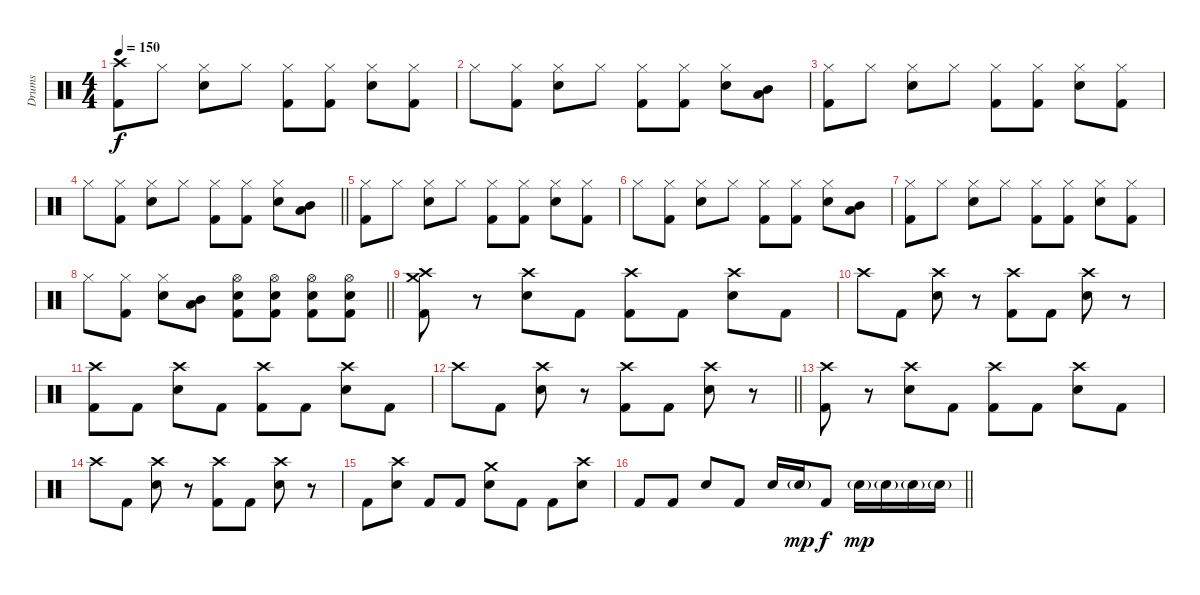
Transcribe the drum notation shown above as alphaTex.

\track ("Drums" "Drums") {instrument percussion}
\staff {score}
\articulation defaults
\ts (4 4)
\tempo 150
\clef neutral
\ks c
("Crash high (hit)" "Kick (hit) 2").8{dy f} "Hi-Hat (closed)".8 ("Hi-Hat (closed)" "Snare (hit) 2").8 "Hi-Hat (closed)".8 ("Hi-Hat (closed)" "Kick (hit) 2").8 ("Hi-Hat (closed)" "Kick (hit) 2").8 ("Hi-Hat (closed)" "Snare (hit) 2").8 ("Hi-Hat (closed)" "Kick (hit) 2").8 |
"Hi-Hat (closed)".8 ("Hi-Hat (closed)" "Kick (hit) 2").8 ("Hi-Hat (closed)" "Snare (hit) 2").8 "Hi-Hat (closed)".8 ("Hi-Hat (closed)" "Kick (hit) 2").8 ("Hi-Hat (closed)" "Kick (hit) 2").8 ("Hi-Hat (closed)" "Snare (hit) 2").8 ("Mid Tom (hit)" "Low Tom (hit)").8 |
("Hi-Hat (closed)" "Kick (hit) 2").8 "Hi-Hat (closed)".8 ("Hi-Hat (closed)" "Snare (hit) 2").8 "Hi-Hat (closed)".8 ("Hi-Hat (closed)" "Kick (hit) 2").8 ("Hi-Hat (closed)" "Kick (hit) 2").8 ("Hi-Hat (closed)" "Snare (hit) 2").8 ("Hi-Hat (closed)" "Kick (hit) 2").8 |
\barLineRight lightlight "Hi-Hat (closed)".8
("Hi-Hat (closed)" "Kick (hit) 2").8 ("Hi-Hat (closed)" "Snare (hit) 2").8 "Hi-Hat (closed)".8 ("Hi-Hat (closed)" "Kick (hit) 2").8 ("Hi-Hat (closed)" "Kick (hit) 2").8 ("Hi-Hat (closed)" "Snare (hit) 2").8 ("Mid Tom (hit)" "Low Tom (hit)").8 |
("Hi-Hat (closed)" "Kick (hit) 2").8 "Hi-Hat (closed)".8 ("Hi-Hat (closed)" "Snare (hit) 2").8 "Hi-Hat (closed)".8 ("Hi-Hat (closed)" "Kick (hit) 2").8 ("Hi-Hat (closed)" "Kick (hit) 2").8 ("Hi-Hat (closed)" "Snare (hit) 2").8 ("Hi-Hat (closed)" "Kick (hit) 2").8 |
"Hi-Hat (closed)".8 ("Hi-Hat (closed)" "Kick (hit) 2").8 ("Hi-Hat (closed)" "Snare (hit) 2").8 "Hi-Hat (closed)".8 ("Hi-Hat (closed)" "Kick (hit) 2").8 ("Hi-Hat (closed)" "Kick (hit) 2").8 ("Hi-Hat (closed)" "Snare (hit) 2").8 ("Mid Tom (hit)" "Low Tom (hit)").8 |
("Hi-Hat (closed)" "Kick (hit) 2").8 "Hi-Hat (closed)".8 ("Hi-Hat (closed)" "Snare (hit) 2").8 "Hi-Hat (closed)".8 ("Hi-Hat (closed)" "Kick (hit) 2").8 ("Hi-Hat (closed)" "Kick (hit) 2").8 ("Hi-Hat (closed)" "Snare (hit) 2").8 ("Hi-Hat (closed)" "Kick (hit) 2").8 |
\barLineRight lightlight "Hi-Hat (closed)".8
("Hi-Hat (closed)" "Kick (hit) 2").8 ("Hi-Hat (closed)" "Snare (hit) 2").8 ("Mid Tom (hit)" "Low Tom (hit)").8 ("Hi-Hat (open)" "Snare (hit) 2" "Kick (hit) 2").8 ("Hi-Hat (open)" "Snare (hit) 2" "Kick (hit) 2").8 ("Hi-Hat (open)" "Snare (hit) 2" "Kick (hit) 2").8 ("Hi-Hat (open)" "Snare (hit) 2" "Kick (hit) 2").8 |
("Crash high (hit)" "Crash medium (hit)" "Kick (hit) 2").8 r.8 ("Crash high (hit)" "Snare (hit) 2").8 "Kick (hit) 2".8 ("Crash high (hit)" "Kick (hit) 2").8 "Kick (hit) 2".8 ("Crash high (hit)" "Snare (hit) 2").8 "Kick (hit) 2".8 |
"Crash high (hit)".8 "Kick (hit) 2".8 ("Crash high (hit)" "Snare (hit) 2").8 r.8 ("Crash high (hit)" "Kick (hit) 2").8 "Kick (hit) 2".8 ("Crash high (hit)" "Snare (hit) 2").8 r.8 |
("Crash high (hit)" "Kick (hit) 2").8 "Kick (hit) 2".8 ("Crash high (hit)" "Snare (hit) 2").8 "Kick (hit) 2".8 ("Crash high (hit)" "Kick (hit) 2").8 "Kick (hit) 2".8 ("Crash high (hit)" "Snare (hit) 2").8 "Kick (hit) 2".8 |
\barLineRight lightlight "Crash high (hit)".8 "Kick (hit) 2".8
("Crash high (hit)" "Snare (hit) 2").8 r.8 ("Crash high (hit)" "Kick (hit) 2").8 "Kick (hit) 2".8 ("Crash high (hit)" "Snare (hit) 2").8 r.8 |
("Crash high (hit)" "Kick (hit) 2").8 r.8 ("Crash high (hit)" "Snare (hit) 2").8 "Kick (hit) 2".8 ("Crash high (hit)" "Kick (hit) 2").8 "Kick (hit) 2".8 ("Crash high (hit)" "Snare (hit) 2").8 "Kick (hit) 2".8 |
"Crash high (hit)".8 "Kick (hit) 2".8 ("Crash high (hit)" "Snare (hit) 2").8 r.8 ("Crash high (hit)" "Kick (hit) 2").8 "Kick (hit) 2".8 ("Crash high (hit)" "Snare (hit) 2").8 r.8 |
"Kick (hit) 2".8 ("Crash high (hit)" "Snare (hit) 2").8 "Kick (hit) 2".8 "Kick (hit) 2".8 ("Crash medium (hit)" "Snare (hit) 2").8 "Kick (hit) 2".8 "Kick (hit) 2".8 ("Crash high (hit)" "Snare (hit) 2").8 |
\barLineRight lightlight "Kick (hit) 2".8 "Kick (hit) 2".8 "Snare (hit) 2".8 "Kick (hit) 2".8 "Snare (hit) 2".16 "Snare (hit) 2"{g}.16{dy mp} "Kick (hit) 2".8{dy f} "Snare (hit) 2"{g}.16{dy mp} "Snare (hit) 2"{g}.16 "Snare (hit) 2"{g}.16 "Snare (hit) 2"{g}.16
